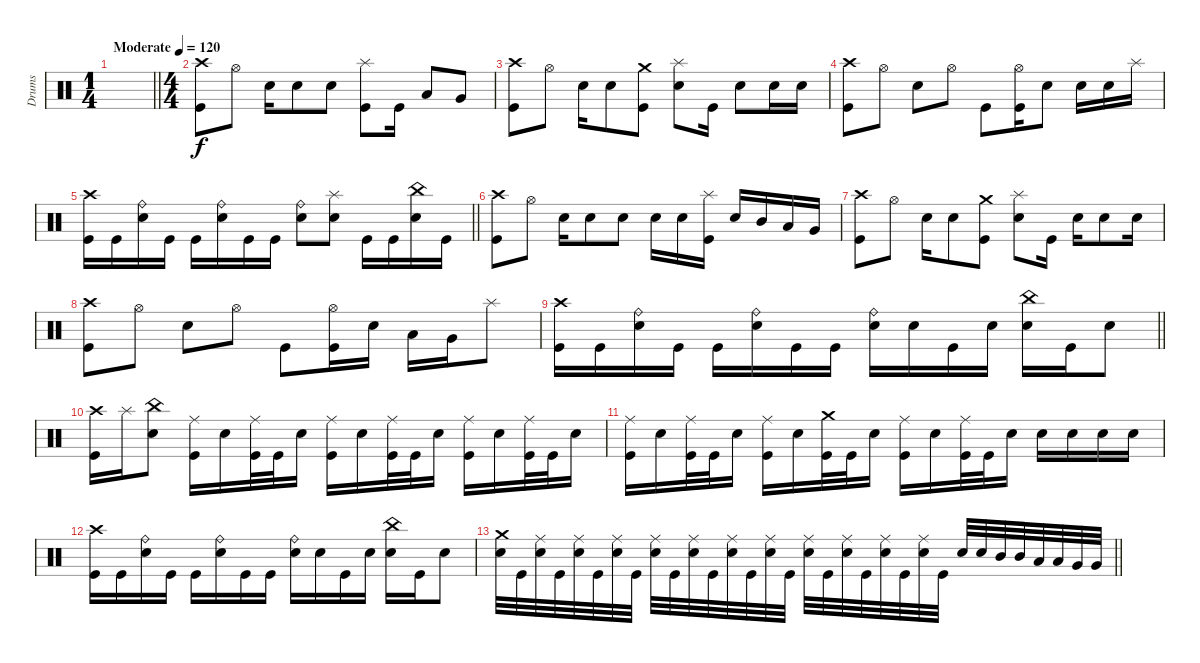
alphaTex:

\track ("Drums" "Drums") {instrument percussion}
\staff
\articulation defaults
\ts (1 4)
\tempo (120 "Moderate")
\clef neutral
\barLineRight lightlight
\ks c
|
\ts (4 4)
("Crash high (hit)" "Kick (hit)").8 "Hi-Hat (open)".8 "Electric Snare (hit)".16 "Electric Snare (hit)".8 "Electric Snare (hit)".8 ("Splash (hit)" "Kick (hit)").8 "Kick (hit)".16 "Low Tom (hit)".8 "Very Low Tom (hit)".8 |
("Crash high (hit)" "Kick (hit)").8 "Hi-Hat (open)".8 "Electric Snare (hit)".16 "Electric Snare (hit)".8 ("Crash medium (hit)" "Kick (hit)").8 ("Splash (hit)" "Electric Snare (hit)").8 "Kick (hit)".16 "Electric Snare (hit)".8 "Electric Snare (hit)".16 "Electric Snare (hit)".16 |
("Crash high (hit)" "Kick (hit)").8 "Hi-Hat (open)".8 "Electric Snare (hit)".8 "Hi-Hat (open)".8 "Kick (hit)".8 ("Hi-Hat (open)" "Kick (hit)").16 "Electric Snare (hit)".8 "Electric Snare (hit)".16 "Electric Snare (hit)".16 "Splash (hit)".16 |
\barLineRight lightlight
("Crash high (hit)" "Kick (hit)").16 "Kick (hit)".16 ("Ride (bell)" "Electric Snare (hit)").16 "Kick (hit)".16 "Kick (hit)".16 ("Ride (bell)" "Electric Snare (hit)").16 "Kick (hit)".16 "Kick (hit)".16 ("Ride (bell)" "Electric Snare (hit)").8 ("Splash (hit)" "Electric Snare (hit)").8 "Kick (hit)".16 "Kick (hit)".16 ("China (hit)" "Electric Snare (hit)").16 "Kick (hit)".16 |
("Crash high (hit)" "Kick (hit)").8 "Hi-Hat (open)".8 "Electric Snare (hit)".16 "Electric Snare (hit)".8 "Electric Snare (hit)".8 "Electric Snare (hit)".16 "Electric Snare (hit)".16 ("Splash (hit)" "Kick (hit)").16 "Electric Snare (hit)".16 "Mid Tom (hit)".16 "Low Tom (hit)".16 "Very Low Tom (hit)".16 |
("Crash high (hit)" "Kick (hit)").8 "Hi-Hat (open)".8 "Electric Snare (hit)".16 "Electric Snare (hit)".8 ("Crash medium (hit)" "Kick (hit)").8 ("Splash (hit)" "Electric Snare (hit)").8 "Kick (hit)".16 "Electric Snare (hit)".16 "Electric Snare (hit)".8 "Electric Snare (hit)".16 |
("Crash high (hit)" "Kick (hit)").8 "Hi-Hat (open)".8 "Electric Snare (hit)".8 "Hi-Hat (open)".8 "Kick (hit)".8 ("Hi-Hat (open)" "Kick (hit)").16 "Electric Snare (hit)".16 "Low Tom (hit)".16 "Very Low Tom (hit)".16 "Splash (hit)".8 |
\barLineRight lightlight
("Crash high (hit)" "Kick (hit)").16 "Kick (hit)".16 ("Ride (bell)" "Electric Snare (hit)").16 "Kick (hit)".16 "Kick (hit)".16 ("Ride (bell)" "Electric Snare (hit)").16 "Kick (hit)".16 "Kick (hit)".16 ("Ride (bell)" "Electric Snare (hit)").16 "Electric Snare (hit)".16 "Kick (hit)".16 "Electric Snare (hit)".16 ("China (hit)" "Electric Snare (hit)").16 "Kick (hit)".16 "Electric Snare (hit)".8 |
("Crash high (hit)" "Kick (hit)").16 "Splash (hit)".16 ("China (hit)" "Electric Snare (hit)").8 ("Ride (middle)" "Kick (hit)").16 "Electric Snare (hit)".16 ("Ride (middle)" "Kick (hit)").32 "Kick (hit)".32 "Electric Snare (hit)".16 ("Ride (middle)" "Kick (hit)").16 "Electric Snare (hit)".16 ("Ride (middle)" "Kick (hit)").32 "Kick (hit)".32 "Electric Snare (hit)".16 ("Ride (middle)" "Kick (hit)").16 "Electric Snare (hit)".16 ("Ride (middle)" "Kick (hit)").32 "Kick (hit)".32 "Electric Snare (hit)".16 |
("Ride (middle)" "Kick (hit)").16 "Electric Snare (hit)".16 ("Ride (middle)" "Kick (hit)").32 "Kick (hit)".32 "Electric Snare (hit)".16 ("Ride (middle)" "Kick (hit)").16 "Electric Snare (hit)".16 ("Crash medium (hit)" "Kick (hit)").32 "Kick (hit)".32 "Electric Snare (hit)".16 ("Ride (middle)" "Kick (hit)").16 "Electric Snare (hit)".16 ("Ride (middle)" "Kick (hit)").32 "Kick (hit)".32 "Electric Snare (hit)".16 "Electric Snare (hit)".16 "Electric Snare (hit)".16 "Electric Snare (hit)".16 "Electric Snare (hit)".16 |
("Crash high (hit)" "Kick (hit)").16 "Kick (hit)".16 ("Ride (bell)" "Electric Snare (hit)").16 "Kick (hit)".16 "Kick (hit)".16 ("Ride (bell)" "Electric Snare (hit)").16 "Kick (hit)".16 "Kick (hit)".16 ("Ride (bell)" "Electric Snare (hit)").16 "Electric Snare (hit)".16 "Kick (hit)".16 "Electric Snare (hit)".16 ("China (hit)" "Electric Snare (hit)").16 "Kick (hit)".16 "Electric Snare (hit)".8 |
\barLineRight lightlight
("Crash medium (hit)" "Electric Snare (hit)").32 "Kick (hit)".32 ("Ride (middle)" "Electric Snare (hit)").32 "Kick (hit)".32 ("Ride (middle)" "Electric Snare (hit)").32 "Kick (hit)".32 ("Ride (middle)" "Electric Snare (hit)").32 "Kick (hit)".32 ("Ride (middle)" "Electric Snare (hit)").32 "Kick (hit)".32 ("Ride (middle)" "Electric Snare (hit)").32 "Kick (hit)".32 ("Ride (middle)" "Electric Snare (hit)").32 "Kick (hit)".32 ("Ride (middle)" "Electric Snare (hit)").32 "Kick (hit)".32 ("Ride (middle)" "Electric Snare (hit)").32 "Kick (hit)".32 ("Ride (middle)" "Electric Snare (hit)").32 "Kick (hit)".32 ("Ride (middle)" "Electric Snare (hit)").32 "Kick (hit)".32 ("Ride (middle)" "Electric Snare (hit)").32 "Kick (hit)".32 "Electric Snare (hit)".32 "Electric Snare (hit)".32 "Mid Tom (hit)".32 "Mid Tom (hit)".32 "Low Tom (hit)".32 "Low Tom (hit)".32 "Very Low Tom (hit)".32 "Very Low Tom (hit)".32
